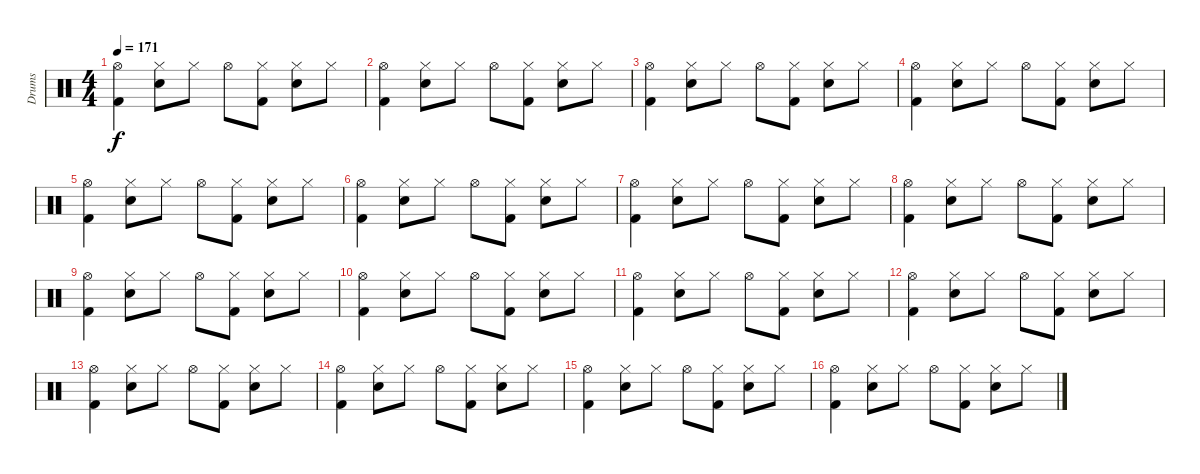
\track ("Drums" "Drums") {instrument percussion}
\staff {score}
\articulation defaults
\ts (4 4)
\tempo 171
\clef neutral
\ks c
("Hi-Hat (open)" "Kick (hit) 2").4{dy f} ("Hi-Hat (closed)" "Electric Snare (hit)").8 "Hi-Hat (closed)".8 "Hi-Hat (open)".8 ("Hi-Hat (closed)" "Kick (hit) 2").8 ("Hi-Hat (closed)" "Electric Snare (hit)").8 "Hi-Hat (closed)".8 |
("Hi-Hat (open)" "Kick (hit) 2").4 ("Hi-Hat (closed)" "Electric Snare (hit)").8 "Hi-Hat (closed)".8 "Hi-Hat (open)".8 ("Hi-Hat (closed)" "Kick (hit) 2").8 ("Hi-Hat (closed)" "Electric Snare (hit)").8 "Hi-Hat (closed)".8 |
("Hi-Hat (open)" "Kick (hit) 2").4 ("Hi-Hat (closed)" "Electric Snare (hit)").8 "Hi-Hat (closed)".8 "Hi-Hat (open)".8 ("Hi-Hat (closed)" "Kick (hit) 2").8 ("Hi-Hat (closed)" "Electric Snare (hit)").8 "Hi-Hat (closed)".8 |
("Hi-Hat (open)" "Kick (hit) 2").4 ("Hi-Hat (closed)" "Electric Snare (hit)").8 "Hi-Hat (closed)".8 "Hi-Hat (open)".8 ("Hi-Hat (closed)" "Kick (hit) 2").8 ("Hi-Hat (closed)" "Electric Snare (hit)").8 "Hi-Hat (closed)".8 |
("Hi-Hat (open)" "Kick (hit) 2").4 ("Hi-Hat (closed)" "Electric Snare (hit)").8 "Hi-Hat (closed)".8 "Hi-Hat (open)".8 ("Hi-Hat (closed)" "Kick (hit) 2").8 ("Hi-Hat (closed)" "Electric Snare (hit)").8 "Hi-Hat (closed)".8 |
("Hi-Hat (open)" "Kick (hit) 2").4 ("Hi-Hat (closed)" "Electric Snare (hit)").8 "Hi-Hat (closed)".8 "Hi-Hat (open)".8 ("Hi-Hat (closed)" "Kick (hit) 2").8 ("Hi-Hat (closed)" "Electric Snare (hit)").8 "Hi-Hat (closed)".8 |
("Hi-Hat (open)" "Kick (hit) 2").4 ("Hi-Hat (closed)" "Electric Snare (hit)").8 "Hi-Hat (closed)".8 "Hi-Hat (open)".8 ("Hi-Hat (closed)" "Kick (hit) 2").8 ("Hi-Hat (closed)" "Electric Snare (hit)").8 "Hi-Hat (closed)".8 |
("Hi-Hat (open)" "Kick (hit) 2").4 ("Hi-Hat (closed)" "Electric Snare (hit)").8 "Hi-Hat (closed)".8 "Hi-Hat (open)".8 ("Hi-Hat (closed)" "Kick (hit) 2").8 ("Hi-Hat (closed)" "Electric Snare (hit)").8 "Hi-Hat (closed)".8 |
("Hi-Hat (open)" "Kick (hit) 2").4 ("Hi-Hat (closed)" "Electric Snare (hit)").8 "Hi-Hat (closed)".8 "Hi-Hat (open)".8 ("Hi-Hat (closed)" "Kick (hit) 2").8 ("Hi-Hat (closed)" "Electric Snare (hit)").8 "Hi-Hat (closed)".8 |
("Hi-Hat (open)" "Kick (hit) 2").4 ("Hi-Hat (closed)" "Electric Snare (hit)").8 "Hi-Hat (closed)".8 "Hi-Hat (open)".8 ("Hi-Hat (closed)" "Kick (hit) 2").8 ("Hi-Hat (closed)" "Electric Snare (hit)").8 "Hi-Hat (closed)".8 |
("Hi-Hat (open)" "Kick (hit) 2").4 ("Hi-Hat (closed)" "Electric Snare (hit)").8 "Hi-Hat (closed)".8 "Hi-Hat (open)".8 ("Hi-Hat (closed)" "Kick (hit) 2").8 ("Hi-Hat (closed)" "Electric Snare (hit)").8 "Hi-Hat (closed)".8 |
("Hi-Hat (open)" "Kick (hit) 2").4 ("Hi-Hat (closed)" "Electric Snare (hit)").8 "Hi-Hat (closed)".8 "Hi-Hat (open)".8 ("Hi-Hat (closed)" "Kick (hit) 2").8 ("Hi-Hat (closed)" "Electric Snare (hit)").8 "Hi-Hat (closed)".8 |
("Hi-Hat (open)" "Kick (hit) 2").4 ("Hi-Hat (closed)" "Electric Snare (hit)").8 "Hi-Hat (closed)".8 "Hi-Hat (open)".8 ("Hi-Hat (closed)" "Kick (hit) 2").8 ("Hi-Hat (closed)" "Electric Snare (hit)").8 "Hi-Hat (closed)".8 |
("Hi-Hat (open)" "Kick (hit) 2").4 ("Hi-Hat (closed)" "Electric Snare (hit)").8 "Hi-Hat (closed)".8 "Hi-Hat (open)".8 ("Hi-Hat (closed)" "Kick (hit) 2").8 ("Hi-Hat (closed)" "Electric Snare (hit)").8 "Hi-Hat (closed)".8 |
("Hi-Hat (open)" "Kick (hit) 2").4 ("Hi-Hat (closed)" "Electric Snare (hit)").8 "Hi-Hat (closed)".8 "Hi-Hat (open)".8 ("Hi-Hat (closed)" "Kick (hit) 2").8 ("Hi-Hat (closed)" "Electric Snare (hit)").8 "Hi-Hat (closed)".8 |
("Hi-Hat (open)" "Kick (hit) 2").4 ("Hi-Hat (closed)" "Electric Snare (hit)").8 "Hi-Hat (closed)".8 "Hi-Hat (open)".8 ("Hi-Hat (closed)" "Kick (hit) 2").8 ("Hi-Hat (closed)" "Electric Snare (hit)").8 "Hi-Hat (closed)".8
